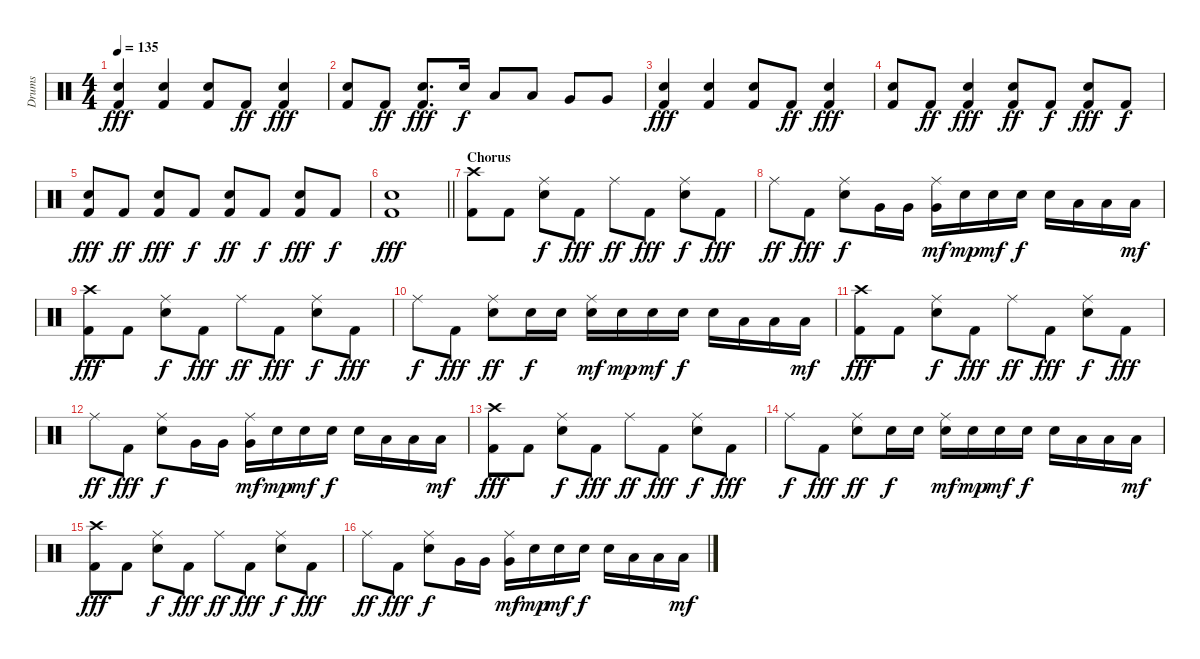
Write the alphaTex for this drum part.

\track ("Drums" "Drums") {instrument percussion}
\staff {score}
\articulation defaults
\ts (4 4)
\tempo 135
\clef neutral
\ks c
("Electric Snare (hit)" "Kick (hit) 2").4{dy fff} ("Electric Snare (hit)" "Kick (hit) 2").4 ("Electric Snare (hit)" "Kick (hit) 2").8 "Kick (hit) 2".8{dy ff} ("Electric Snare (hit)" "Kick (hit) 2").4{dy fff} |
("Electric Snare (hit)" "Kick (hit) 2").8 "Kick (hit) 2".8{dy ff} ("Electric Snare (hit)" "Kick (hit) 2").8{d dy fff} "Electric Snare (hit)".16{dy f} "Low Tom (hit)".8 "Low Tom (hit)".8 "Very Low Tom (hit)".8 "Very Low Tom (hit)".8 |
("Electric Snare (hit)" "Kick (hit) 2").4{dy fff} ("Electric Snare (hit)" "Kick (hit) 2").4 ("Electric Snare (hit)" "Kick (hit) 2").8 "Kick (hit) 2".8{dy ff} ("Electric Snare (hit)" "Kick (hit) 2").4{dy fff} |
("Electric Snare (hit)" "Kick (hit) 2").8 "Kick (hit) 2".8{dy ff} ("Electric Snare (hit)" "Kick (hit) 2").4{dy fff} ("Electric Snare (hit)" "Kick (hit) 2").8{dy ff} "Kick (hit) 2".8{dy f} ("Electric Snare (hit)" "Kick (hit) 2").8{dy fff} "Kick (hit) 2".8{dy f} |
("Electric Snare (hit)" "Kick (hit) 2").8{dy fff} "Kick (hit) 2".8{dy ff} ("Electric Snare (hit)" "Kick (hit) 2").8{dy fff} "Kick (hit) 2".8{dy f} ("Electric Snare (hit)" "Kick (hit) 2").8{dy ff} "Kick (hit) 2".8{dy f} ("Electric Snare (hit)" "Kick (hit) 2").8{dy fff} "Kick (hit) 2".8{dy f} |
\barLineRight lightlight
("Electric Snare (hit)" "Kick (hit) 2").1{dy fff} |
\section ("" "Chorus")
("Crash high (hit)" "Kick (hit) 2").8 "Kick (hit) 2".8 ("Ride (middle)" "Electric Snare (hit)").8{dy f} "Kick (hit) 2".8{dy fff} "Ride (middle)".8{dy ff} "Kick (hit) 2".8{dy fff} ("Ride (middle)" "Electric Snare (hit)").8{dy f} "Kick (hit) 2".8{dy fff} |
"Ride (middle)".8{dy ff} "Kick (hit) 2".8{dy fff} ("Ride (middle)" "Electric Snare (hit)").8{dy f} "Very Low Tom (hit)".16 "Very Low Tom (hit)".16 ("Ride (middle)" "Very Low Tom (hit)").16{dy mf} "Electric Snare (hit)".16{dy mp} "Electric Snare (hit)".16{dy mf} "Electric Snare (hit)".16{dy f} "Electric Snare (hit)".16 "Low Tom (hit)".16 "Low Tom (hit)".16 "Low Tom (hit)".16{dy mf} |
("Crash high (hit)" "Kick (hit) 2").8{dy fff} "Kick (hit) 2".8 ("Ride (middle)" "Electric Snare (hit)").8{dy f} "Kick (hit) 2".8{dy fff} "Ride (middle)".8{dy ff} "Kick (hit) 2".8{dy fff} ("Ride (middle)" "Electric Snare (hit)").8{dy f} "Kick (hit) 2".8{dy fff} |
"Ride (middle)".8{dy f} "Kick (hit) 2".8{dy fff} ("Ride (middle)" "Electric Snare (hit)").8{dy ff} "Electric Snare (hit)".16{dy f} "Electric Snare (hit)".16 ("Ride (middle)" "Electric Snare (hit)").16{dy mf} "Electric Snare (hit)".16{dy mp} "Electric Snare (hit)".16{dy mf} "Electric Snare (hit)".16{dy f} "Electric Snare (hit)".16 "Low Tom (hit)".16 "Low Tom (hit)".16 "Low Tom (hit)".16{dy mf} |
("Crash high (hit)" "Kick (hit) 2").8{dy fff} "Kick (hit) 2".8 ("Ride (middle)" "Electric Snare (hit)").8{dy f} "Kick (hit) 2".8{dy fff} "Ride (middle)".8{dy ff} "Kick (hit) 2".8{dy fff} ("Ride (middle)" "Electric Snare (hit)").8{dy f} "Kick (hit) 2".8{dy fff} |
"Ride (middle)".8{dy ff} "Kick (hit) 2".8{dy fff} ("Ride (middle)" "Electric Snare (hit)").8{dy f} "Very Low Tom (hit)".16 "Very Low Tom (hit)".16 ("Ride (middle)" "Very Low Tom (hit)").16{dy mf} "Electric Snare (hit)".16{dy mp} "Electric Snare (hit)".16{dy mf} "Electric Snare (hit)".16{dy f} "Electric Snare (hit)".16 "Low Tom (hit)".16 "Low Tom (hit)".16 "Low Tom (hit)".16{dy mf} |
("Crash high (hit)" "Kick (hit) 2").8{dy fff} "Kick (hit) 2".8 ("Ride (middle)" "Electric Snare (hit)").8{dy f} "Kick (hit) 2".8{dy fff} "Ride (middle)".8{dy ff} "Kick (hit) 2".8{dy fff} ("Ride (middle)" "Electric Snare (hit)").8{dy f} "Kick (hit) 2".8{dy fff} |
"Ride (middle)".8{dy f} "Kick (hit) 2".8{dy fff} ("Ride (middle)" "Electric Snare (hit)").8{dy ff} "Electric Snare (hit)".16{dy f} "Electric Snare (hit)".16 ("Ride (middle)" "Electric Snare (hit)").16{dy mf} "Electric Snare (hit)".16{dy mp} "Electric Snare (hit)".16{dy mf} "Electric Snare (hit)".16{dy f} "Electric Snare (hit)".16 "Low Tom (hit)".16 "Low Tom (hit)".16 "Low Tom (hit)".16{dy mf} |
("Crash high (hit)" "Kick (hit) 2").8{dy fff} "Kick (hit) 2".8 ("Ride (middle)" "Electric Snare (hit)").8{dy f} "Kick (hit) 2".8{dy fff} "Ride (middle)".8{dy ff} "Kick (hit) 2".8{dy fff} ("Ride (middle)" "Electric Snare (hit)").8{dy f} "Kick (hit) 2".8{dy fff} |
"Ride (middle)".8{dy ff} "Kick (hit) 2".8{dy fff} ("Ride (middle)" "Electric Snare (hit)").8{dy f} "Very Low Tom (hit)".16 "Very Low Tom (hit)".16 ("Ride (middle)" "Very Low Tom (hit)").16{dy mf} "Electric Snare (hit)".16{dy mp} "Electric Snare (hit)".16{dy mf} "Electric Snare (hit)".16{dy f} "Electric Snare (hit)".16 "Low Tom (hit)".16 "Low Tom (hit)".16 "Low Tom (hit)".16{dy mf}
